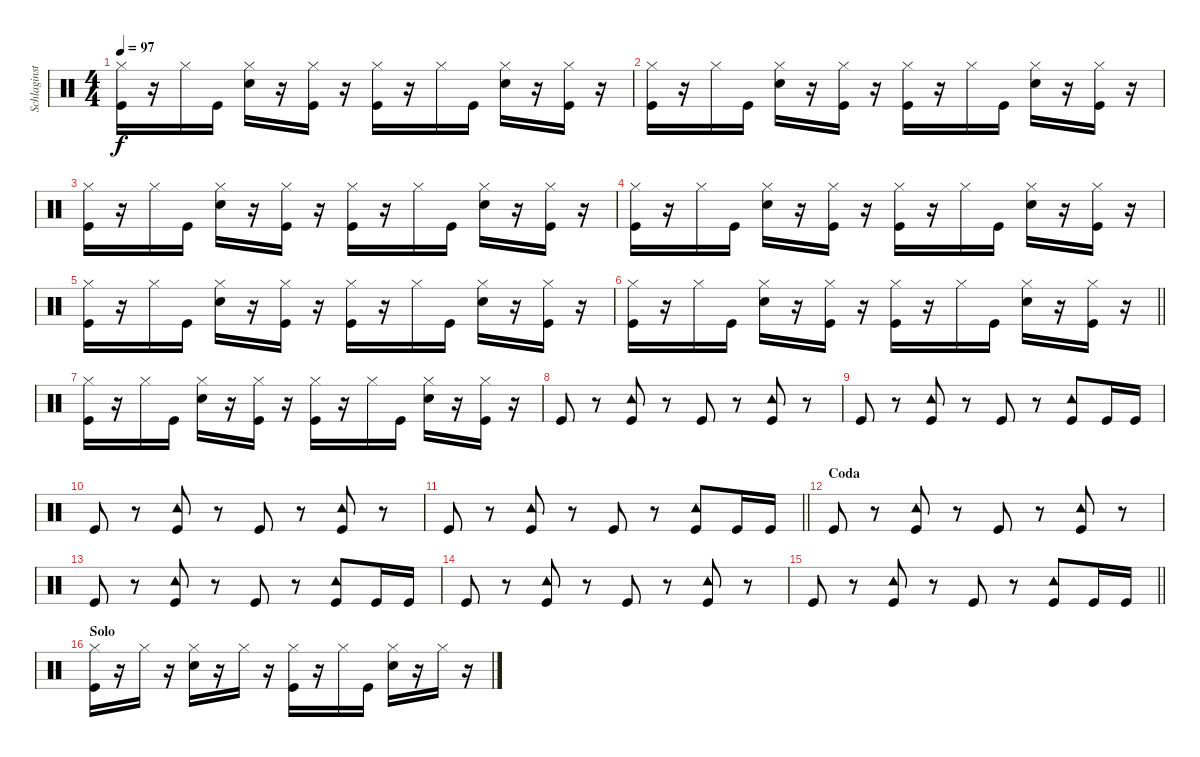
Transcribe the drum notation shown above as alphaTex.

\track ("Schlaginstrumente - Auswahl" "Schlaginst") {instrument percussion}
\staff {score}
\articulation defaults
\ts (4 4)
\tempo 97
\clef neutral
\ks c
("Hi-Hat (closed)" "Kick (hit)").16{dy f} r.16 "Hi-Hat (closed)".16 "Kick (hit)".16 ("Hi-Hat (closed)" "Snare (hit) 2").16 r.16 ("Hi-Hat (closed)" "Kick (hit)").16 r.16 ("Hi-Hat (closed)" "Kick (hit)").16 r.16 "Hi-Hat (closed)".16 "Kick (hit)".16 ("Hi-Hat (closed)" "Snare (hit) 2").16 r.16 ("Hi-Hat (closed)" "Kick (hit)").16 r.16 |
("Hi-Hat (closed)" "Kick (hit)").16 r.16 "Hi-Hat (closed)".16 "Kick (hit)".16 ("Hi-Hat (closed)" "Snare (hit) 2").16 r.16 ("Hi-Hat (closed)" "Kick (hit)").16 r.16 ("Hi-Hat (closed)" "Kick (hit)").16 r.16 "Hi-Hat (closed)".16 "Kick (hit)".16 ("Hi-Hat (closed)" "Snare (hit) 2").16 r.16 ("Hi-Hat (closed)" "Kick (hit)").16 r.16 |
("Hi-Hat (closed)" "Kick (hit)").16 r.16 "Hi-Hat (closed)".16 "Kick (hit)".16 ("Hi-Hat (closed)" "Snare (hit) 2").16 r.16 ("Hi-Hat (closed)" "Kick (hit)").16 r.16 ("Hi-Hat (closed)" "Kick (hit)").16 r.16 "Hi-Hat (closed)".16 "Kick (hit)".16 ("Hi-Hat (closed)" "Snare (hit) 2").16 r.16 ("Hi-Hat (closed)" "Kick (hit)").16 r.16 |
("Hi-Hat (closed)" "Kick (hit)").16 r.16 "Hi-Hat (closed)".16 "Kick (hit)".16 ("Hi-Hat (closed)" "Snare (hit) 2").16 r.16 ("Hi-Hat (closed)" "Kick (hit)").16 r.16 ("Hi-Hat (closed)" "Kick (hit)").16 r.16 "Hi-Hat (closed)".16 "Kick (hit)".16 ("Hi-Hat (closed)" "Snare (hit) 2").16 r.16 ("Hi-Hat (closed)" "Kick (hit)").16 r.16 |
("Hi-Hat (closed)" "Kick (hit)").16 r.16 "Hi-Hat (closed)".16 "Kick (hit)".16 ("Hi-Hat (closed)" "Snare (hit) 2").16 r.16 ("Hi-Hat (closed)" "Kick (hit)").16 r.16 ("Hi-Hat (closed)" "Kick (hit)").16 r.16 "Hi-Hat (closed)".16 "Kick (hit)".16 ("Hi-Hat (closed)" "Snare (hit) 2").16 r.16 ("Hi-Hat (closed)" "Kick (hit)").16 r.16 |
\barLineRight lightlight
("Hi-Hat (closed)" "Kick (hit)").16 r.16 "Hi-Hat (closed)".16 "Kick (hit)".16 ("Hi-Hat (closed)" "Snare (hit) 2").16 r.16 ("Hi-Hat (closed)" "Kick (hit)").16 r.16 ("Hi-Hat (closed)" "Kick (hit)").16 r.16 "Hi-Hat (closed)".16 "Kick (hit)".16 ("Hi-Hat (closed)" "Snare (hit) 2").16 r.16 ("Hi-Hat (closed)" "Kick (hit)").16 r.16 |
("Hi-Hat (closed)" "Kick (hit)").16 r.16 "Hi-Hat (closed)".16 "Kick (hit)".16 ("Hi-Hat (closed)" "Snare (hit) 2").16 r.16 ("Hi-Hat (closed)" "Kick (hit)").16 r.16 ("Hi-Hat (closed)" "Kick (hit)").16 r.16 "Hi-Hat (closed)".16 "Kick (hit)".16 ("Hi-Hat (closed)" "Snare (hit) 2").16 r.16 ("Hi-Hat (closed)" "Kick (hit)").16 r.16 |
"Kick (hit)".8 r.8 ("Tambourine (hit)" "Kick (hit)").8 r.8 "Kick (hit)".8 r.8 ("Tambourine (hit)" "Kick (hit)").8 r.8 |
"Kick (hit)".8 r.8 ("Tambourine (hit)" "Kick (hit)").8 r.8 "Kick (hit)".8 r.8 ("Tambourine (hit)" "Kick (hit)").8 "Kick (hit)".16 "Kick (hit)".16 |
"Kick (hit)".8 r.8 ("Tambourine (hit)" "Kick (hit)").8 r.8 "Kick (hit)".8 r.8 ("Tambourine (hit)" "Kick (hit)").8 r.8 |
\barLineRight lightlight "Kick (hit)".8
r.8 ("Tambourine (hit)" "Kick (hit)").8 r.8 "Kick (hit)".8 r.8 ("Tambourine (hit)" "Kick (hit)").8 "Kick (hit)".16 "Kick (hit)".16 |
\section ("" "Coda")
"Kick (hit)".8 r.8 ("Tambourine (hit)" "Kick (hit)").8 r.8 "Kick (hit)".8 r.8 ("Tambourine (hit)" "Kick (hit)").8 r.8 |
"Kick (hit)".8 r.8 ("Tambourine (hit)" "Kick (hit)").8 r.8 "Kick (hit)".8 r.8 ("Tambourine (hit)" "Kick (hit)").8 "Kick (hit)".16 "Kick (hit)".16 |
"Kick (hit)".8 r.8 ("Tambourine (hit)" "Kick (hit)").8 r.8 "Kick (hit)".8 r.8 ("Tambourine (hit)" "Kick (hit)").8 r.8 |
\barLineRight lightlight "Kick (hit)".8
r.8 ("Tambourine (hit)" "Kick (hit)").8 r.8 "Kick (hit)".8 r.8 ("Tambourine (hit)" "Kick (hit)").8 "Kick (hit)".16 "Kick (hit)".16 |
\section ("" "Solo")
("Hi-Hat (closed)" "Kick (hit)").16 r.16 "Hi-Hat (closed)".16 r.16 ("Hi-Hat (closed)" "Snare (hit) 2").16 r.16 "Hi-Hat (closed)".16 r.16 ("Hi-Hat (closed)" "Kick (hit)").16 r.16 "Hi-Hat (closed)".16 "Kick (hit)".16 ("Hi-Hat (closed)" "Snare (hit) 2").16 r.16 "Hi-Hat (closed)".16 r.16
